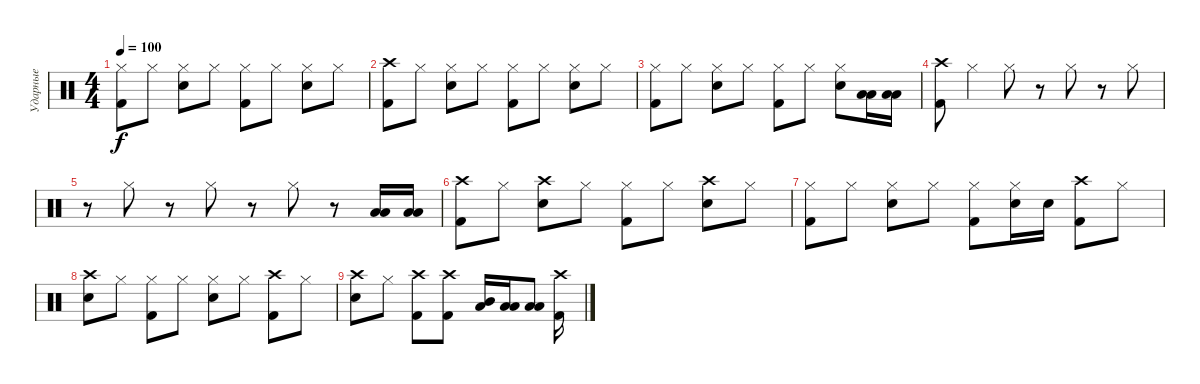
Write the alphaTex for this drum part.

\track ("Ударные" "Ударные") {instrument percussion}
\staff {score}
\articulation defaults
\ts (4 4)
\tempo 100
\clef neutral
\ks c
("Kick (hit) 2" "Hi-Hat (closed)").8{dy f} "Hi-Hat (closed)".8 ("Electric Snare (hit)" "Hi-Hat (closed)").8 "Hi-Hat (closed)".8 ("Kick (hit) 2" "Hi-Hat (closed)").8 "Hi-Hat (closed)".8 ("Electric Snare (hit)" "Hi-Hat (closed)").8 "Hi-Hat (closed)".8 |
("Kick (hit) 2" "Crash high (hit)").8 "Hi-Hat (closed)".8 ("Electric Snare (hit)" "Hi-Hat (closed)").8 "Hi-Hat (closed)".8 ("Kick (hit) 2" "Hi-Hat (closed)").8 "Hi-Hat (closed)".8 ("Electric Snare (hit)" "Hi-Hat (closed)").8 "Hi-Hat (closed)".8 |
("Kick (hit) 2" "Hi-Hat (closed)").8 "Hi-Hat (closed)".8 ("Electric Snare (hit)" "Hi-Hat (closed)").8 "Hi-Hat (closed)".8 ("Kick (hit) 2" "Hi-Hat (closed)").8 "Hi-Hat (closed)".8 ("Electric Snare (hit)" "Hi-Hat (closed)").8 ("Low Floor Tom (hit)" "Low Tom (hit)").16 ("Low Floor Tom (hit)" "Low Tom (hit)").16 |
("Kick (hit) 2" "Crash high (hit)").8 "Hi-Hat (closed)".4 "Hi-Hat (closed)".8 r.8 "Hi-Hat (closed)".8 r.8 "Hi-Hat (closed)".8 |
r.8 "Hi-Hat (closed)".8 r.8 "Hi-Hat (closed)".8 r.8 "Hi-Hat (closed)".8 r.8 ("Low Tom (hit)" "Low Floor Tom (hit)").16 ("Low Tom (hit)" "Low Floor Tom (hit)").16 |
("Kick (hit) 2" "Crash high (hit)").8 "Hi-Hat (closed)".8 ("Electric Snare (hit)" "Crash high (hit)").8 "Hi-Hat (closed)".8 ("Kick (hit) 2" "Hi-Hat (closed)").8 "Hi-Hat (closed)".8 ("Electric Snare (hit)" "Crash high (hit)").8 "Hi-Hat (closed)".8 |
("Kick (hit) 2" "Hi-Hat (closed)").8 "Hi-Hat (closed)".8 ("Electric Snare (hit)" "Hi-Hat (closed)").8 "Hi-Hat (closed)".8 ("Kick (hit) 2" "Hi-Hat (closed)").8 ("Electric Snare (hit)" "Hi-Hat (closed)").16 "Electric Snare (hit)".16 ("Kick (hit) 2" "Crash high (hit)").8 "Hi-Hat (closed)".8 |
("Electric Snare (hit)" "Crash high (hit)").8 "Hi-Hat (closed)".8 ("Kick (hit) 2" "Hi-Hat (closed)").8 "Hi-Hat (closed)".8 ("Electric Snare (hit)" "Hi-Hat (closed)").8 "Hi-Hat (closed)".8 ("Kick (hit) 2" "Crash high (hit)").8 "Hi-Hat (closed)".8 |
("Electric Snare (hit)" "Crash high (hit)").8 "Hi-Hat (closed)".8 ("Kick (hit) 2" "Crash high (hit)").8 ("Kick (hit) 2" "Crash high (hit)").8 ("Mid Tom (hit)" "Low Tom (hit)").16 ("Low Tom (hit)" "Low Floor Tom (hit)").16 ("Low Floor Tom (hit)" "Low Floor Tom (hit)").8 ("Kick (hit) 2" "Crash high (hit)").16
